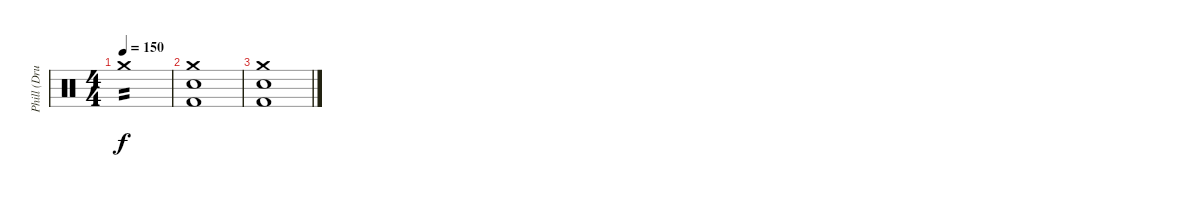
\track ("Phill (Drums)" "Phill (Dru") {instrument percussion}
\staff {score}
\articulation defaults
\ts (4 4)
\tempo 150
\clef neutral
\ks c "Crash medium (hit)".1{tp 2 dy f}
|
("Kick (hit) 2" "Snare (hit) 2" "Crash medium (hit)").1 |
("Kick (hit) 2" "Snare (hit) 2" "Crash medium (hit)").1
